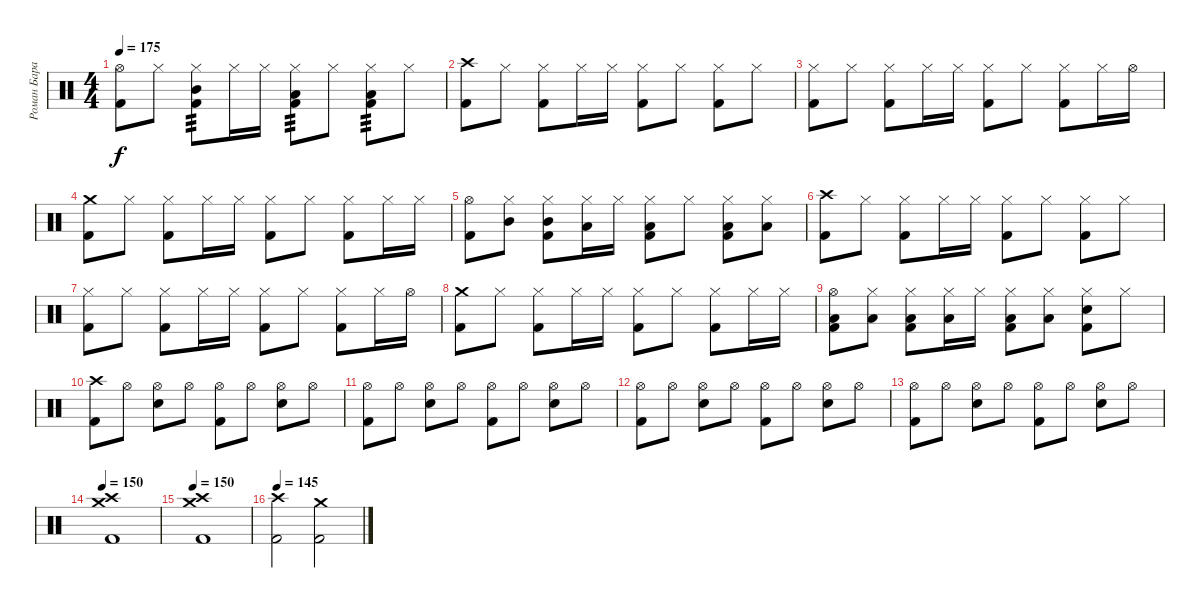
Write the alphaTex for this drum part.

\track ("Роман Баранюк" "Роман Бара") {instrument percussion}
\staff {score}
\articulation defaults
\ts (4 4)
\tempo 175
\clef neutral
\ks c
("Hi-Hat (open)" "Kick (hit) 2").8{dy f} "Hi-Hat (closed)".8 ("Hi-Hat (closed)" "Mid Tom (hit)" "Kick (hit) 2").8{tp 3} "Hi-Hat (closed)".16 "Hi-Hat (closed)".16 ("Hi-Hat (closed)" "Low Tom (hit)" "Kick (hit) 2").8{tp 3} "Hi-Hat (closed)".8 ("Hi-Hat (closed)" "Low Tom (hit)" "Kick (hit) 2").8{tp 3} "Hi-Hat (closed)".8 |
("Crash high (hit)" "Kick (hit) 2").8 "Hi-Hat (closed)".8 ("Hi-Hat (closed)" "Kick (hit) 2").8 "Hi-Hat (closed)".16 "Hi-Hat (closed)".16 ("Hi-Hat (closed)" "Kick (hit) 2").8 "Hi-Hat (closed)".8 ("Hi-Hat (closed)" "Kick (hit) 2").8 "Hi-Hat (closed)".8 |
("Hi-Hat (closed)" "Kick (hit) 2").8 "Hi-Hat (closed)".8 ("Hi-Hat (closed)" "Kick (hit) 2").8 "Hi-Hat (closed)".16 "Hi-Hat (closed)".16 ("Hi-Hat (closed)" "Kick (hit) 2").8 "Hi-Hat (closed)".8 ("Hi-Hat (closed)" "Kick (hit) 2").8 "Hi-Hat (closed)".16 "Hi-Hat (open)".16 |
("Crash medium (hit)" "Kick (hit) 2").8 "Hi-Hat (closed)".8 ("Hi-Hat (closed)" "Kick (hit) 2").8 "Hi-Hat (closed)".16 "Hi-Hat (closed)".16 ("Hi-Hat (closed)" "Kick (hit) 2").8 "Hi-Hat (closed)".8 ("Hi-Hat (closed)" "Kick (hit) 2").8 "Hi-Hat (closed)".16 "Hi-Hat (closed)".16 |
("Hi-Hat (open)" "Kick (hit) 2").8 ("Hi-Hat (closed)" "Mid Tom (hit)").8 ("Hi-Hat (closed)" "Mid Tom (hit)" "Kick (hit) 2").8 ("Hi-Hat (closed)" "Low Tom (hit)").16 "Hi-Hat (closed)".16 ("Hi-Hat (closed)" "Low Tom (hit)" "Kick (hit) 2").8 "Hi-Hat (closed)".8 ("Hi-Hat (closed)" "Low Tom (hit)" "Kick (hit) 2").8 ("Hi-Hat (closed)" "Low Tom (hit)").8 |
("Crash high (hit)" "Kick (hit) 2").8 "Hi-Hat (closed)".8 ("Hi-Hat (closed)" "Kick (hit) 2").8 "Hi-Hat (closed)".16 "Hi-Hat (closed)".16 ("Hi-Hat (closed)" "Kick (hit) 2").8 "Hi-Hat (closed)".8 ("Hi-Hat (closed)" "Kick (hit) 2").8 "Hi-Hat (closed)".8 |
("Hi-Hat (closed)" "Kick (hit) 2").8 "Hi-Hat (closed)".8 ("Hi-Hat (closed)" "Kick (hit) 2").8 "Hi-Hat (closed)".16 "Hi-Hat (closed)".16 ("Hi-Hat (closed)" "Kick (hit) 2").8 "Hi-Hat (closed)".8 ("Hi-Hat (closed)" "Kick (hit) 2").8 "Hi-Hat (closed)".16 "Hi-Hat (open)".16 |
("Crash medium (hit)" "Kick (hit) 2").8 "Hi-Hat (closed)".8 ("Hi-Hat (closed)" "Kick (hit) 2").8 "Hi-Hat (closed)".16 "Hi-Hat (closed)".16 ("Hi-Hat (closed)" "Kick (hit) 2").8 "Hi-Hat (closed)".8 ("Hi-Hat (closed)" "Kick (hit) 2").8 "Hi-Hat (closed)".16 "Hi-Hat (closed)".16 |
("Hi-Hat (open)" "Low Tom (hit)" "Kick (hit) 2").8 ("Hi-Hat (closed)" "Low Tom (hit)").8 ("Hi-Hat (closed)" "Low Tom (hit)" "Kick (hit) 2").8 ("Hi-Hat (closed)" "Low Tom (hit)").16 "Hi-Hat (closed)".16 ("Hi-Hat (closed)" "Low Tom (hit)" "Kick (hit) 2").8 ("Hi-Hat (closed)" "Low Tom (hit)").8 ("Hi-Hat (closed)" "Snare (hit) 2" "Kick (hit) 2").8 "Hi-Hat (closed)".8 |
("Crash high (hit)" "Kick (hit) 2").8 "Hi-Hat (open)".8 ("Hi-Hat (open)" "Snare (hit) 2").8 "Hi-Hat (open)".8 ("Hi-Hat (open)" "Kick (hit) 2").8 "Hi-Hat (open)".8 ("Hi-Hat (open)" "Snare (hit) 2").8 "Hi-Hat (open)".8 |
("Hi-Hat (open)" "Kick (hit) 2").8 "Hi-Hat (open)".8 ("Hi-Hat (open)" "Snare (hit) 2").8 "Hi-Hat (open)".8 ("Hi-Hat (open)" "Kick (hit) 2").8 "Hi-Hat (open)".8 ("Hi-Hat (open)" "Snare (hit) 2").8 "Hi-Hat (open)".8 |
("Hi-Hat (open)" "Kick (hit) 2").8 "Hi-Hat (open)".8 ("Hi-Hat (open)" "Snare (hit) 2").8 "Hi-Hat (open)".8 ("Hi-Hat (open)" "Kick (hit) 2").8 "Hi-Hat (open)".8 ("Hi-Hat (open)" "Snare (hit) 2").8 "Hi-Hat (open)".8 |
("Hi-Hat (open)" "Kick (hit) 2").8 "Hi-Hat (open)".8 ("Hi-Hat (open)" "Snare (hit) 2").8 "Hi-Hat (open)".8 ("Hi-Hat (open)" "Kick (hit) 2").8 "Hi-Hat (open)".8 ("Hi-Hat (open)" "Snare (hit) 2").8 "Hi-Hat (open)".8 |
\tempo 150
("Crash high (hit)" "Crash medium (hit)" "Kick (hit) 2").1 |
\tempo 150
("Crash high (hit)" "Crash medium (hit)" "Kick (hit) 2").1 |
\tempo 80
\tempo 145
("Crash high (hit)" "Kick (hit) 2").2 ("Crash medium (hit)" "Kick (hit) 2").2
